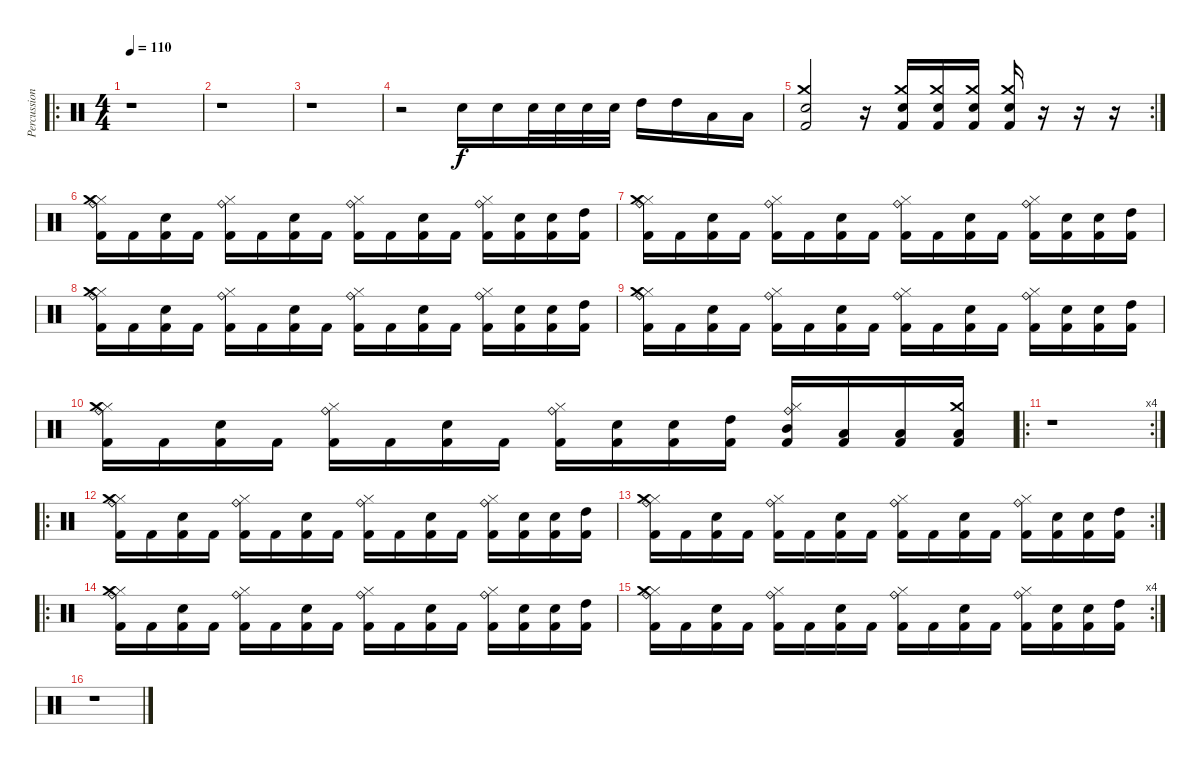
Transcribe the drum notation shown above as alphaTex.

\track ("Percussion" "Percussion") {instrument percussion}
\staff {score}
\articulation defaults
\ro
\ts (4 4)
\tempo 110
\clef neutral
\ks c
r.1{dy f} |
r.1 |
r.1 |
r.2 "Electric Snare (hit)".16 "Electric Snare (hit)".16 "Snare (hit) 2".32 "Snare (hit) 2".32 "Snare (hit) 2".32 "Snare (hit) 2".32 "High Tom (hit)".16 "High Tom (hit)".16 "Low Tom (hit)".16 "Low Floor Tom (hit)".16 |
\rc 2
("Crash medium (hit)" "Electric Snare (hit)" "Kick (hit) 2").2 r.16 ("Crash medium (hit)" "Electric Snare (hit)" "Kick (hit) 2").16 ("Crash medium (hit)" "Electric Snare (hit)" "Kick (hit) 2").16 ("Crash medium (hit)" "Electric Snare (hit)" "Kick (hit) 2").16 ("Crash medium (hit)" "Electric Snare (hit)" "Kick (hit) 2").16 r.16 r.16 r.16 |
("Ride (bell)" "Hi-Hat (closed)" "Crash medium (hit)" "Kick (hit) 2").16 "Kick (hit) 2".16 ("Electric Snare (hit)" "Kick (hit) 2").16 "Kick (hit) 2".16 ("Ride (bell)" "Hi-Hat (closed)" "Kick (hit) 2").16 "Kick (hit) 2".16 ("Electric Snare (hit)" "Kick (hit) 2").16 "Kick (hit) 2".16 ("Ride (bell)" "Hi-Hat (closed)" "Kick (hit) 2").16 "Kick (hit) 2".16 ("Electric Snare (hit)" "Kick (hit) 2").16 "Kick (hit) 2".16 ("Ride (bell)" "Hi-Hat (closed)" "Kick (hit) 2").16 ("Snare (hit) 2" "Kick (hit) 2").16 ("Snare (hit) 2" "Kick (hit) 2").16 ("High Tom (hit)" "Kick (hit) 2").16 |
("Ride (bell)" "Hi-Hat (closed)" "Crash medium (hit)" "Kick (hit) 2").16 "Kick (hit) 2".16 ("Electric Snare (hit)" "Kick (hit) 2").16 "Kick (hit) 2".16 ("Ride (bell)" "Hi-Hat (closed)" "Kick (hit) 2").16 "Kick (hit) 2".16 ("Electric Snare (hit)" "Kick (hit) 2").16 "Kick (hit) 2".16 ("Ride (bell)" "Hi-Hat (closed)" "Kick (hit) 2").16 "Kick (hit) 2".16 ("Electric Snare (hit)" "Kick (hit) 2").16 "Kick (hit) 2".16 ("Ride (bell)" "Hi-Hat (closed)" "Kick (hit) 2").16 ("Snare (hit) 2" "Kick (hit) 2").16 ("Snare (hit) 2" "Kick (hit) 2").16 ("High Tom (hit)" "Kick (hit) 2").16 |
("Ride (bell)" "Hi-Hat (closed)" "Crash medium (hit)" "Kick (hit) 2").16 "Kick (hit) 2".16 ("Electric Snare (hit)" "Kick (hit) 2").16 "Kick (hit) 2".16 ("Ride (bell)" "Hi-Hat (closed)" "Kick (hit) 2").16 "Kick (hit) 2".16 ("Electric Snare (hit)" "Kick (hit) 2").16 "Kick (hit) 2".16 ("Ride (bell)" "Hi-Hat (closed)" "Kick (hit) 2").16 "Kick (hit) 2".16 ("Electric Snare (hit)" "Kick (hit) 2").16 "Kick (hit) 2".16 ("Ride (bell)" "Hi-Hat (closed)" "Kick (hit) 2").16 ("Snare (hit) 2" "Kick (hit) 2").16 ("Snare (hit) 2" "Kick (hit) 2").16 ("High Tom (hit)" "Kick (hit) 2").16 |
("Ride (bell)" "Hi-Hat (closed)" "Crash medium (hit)" "Kick (hit) 2").16 "Kick (hit) 2".16 ("Electric Snare (hit)" "Kick (hit) 2").16 "Kick (hit) 2".16 ("Ride (bell)" "Hi-Hat (closed)" "Kick (hit) 2").16 "Kick (hit) 2".16 ("Electric Snare (hit)" "Kick (hit) 2").16 "Kick (hit) 2".16 ("Ride (bell)" "Hi-Hat (closed)" "Kick (hit) 2").16 "Kick (hit) 2".16 ("Electric Snare (hit)" "Kick (hit) 2").16 "Kick (hit) 2".16 ("Ride (bell)" "Hi-Hat (closed)" "Kick (hit) 2").16 ("Snare (hit) 2" "Kick (hit) 2").16 ("Snare (hit) 2" "Kick (hit) 2").16 ("High Tom (hit)" "Kick (hit) 2").16 |
("Ride (bell)" "Hi-Hat (closed)" "Crash medium (hit)" "Kick (hit) 2").16 "Kick (hit) 2".16 ("Electric Snare (hit)" "Kick (hit) 2").16 "Kick (hit) 2".16 ("Ride (bell)" "Hi-Hat (closed)" "Kick (hit) 2").16 "Kick (hit) 2".16 ("Electric Snare (hit)" "Kick (hit) 2").16 "Kick (hit) 2".16 ("Ride (bell)" "Hi-Hat (closed)" "Kick (hit) 2").16 ("Snare (hit) 2" "Kick (hit) 2").16 ("Snare (hit) 2" "Kick (hit) 2").16 ("High Tom (hit)" "Kick (hit) 2").16 ("Ride (bell)" "Hi-Hat (closed)" "Mid Tom (hit)" "Kick (hit) 2").16 ("Low Tom (hit)" "Kick (hit) 2").16 ("Low Tom (hit)" "Kick (hit) 2").16 ("Crash medium (hit)" "Low Floor Tom (hit)" "Kick (hit) 2").16 |
\ro
\rc 4
r.1 |
\ro
("Ride (bell)" "Hi-Hat (closed)" "Crash medium (hit)" "Kick (hit) 2").16 "Kick (hit) 2".16 ("Electric Snare (hit)" "Kick (hit) 2").16 "Kick (hit) 2".16 ("Ride (bell)" "Hi-Hat (closed)" "Kick (hit) 2").16 "Kick (hit) 2".16 ("Electric Snare (hit)" "Kick (hit) 2").16 "Kick (hit) 2".16 ("Ride (bell)" "Hi-Hat (closed)" "Kick (hit) 2").16 "Kick (hit) 2".16 ("Electric Snare (hit)" "Kick (hit) 2").16 "Kick (hit) 2".16 ("Ride (bell)" "Hi-Hat (closed)" "Kick (hit) 2").16 ("Snare (hit) 2" "Kick (hit) 2").16 ("Snare (hit) 2" "Kick (hit) 2").16 ("High Tom (hit)" "Kick (hit) 2").16 |
\rc 2
("Ride (bell)" "Hi-Hat (closed)" "Crash medium (hit)" "Kick (hit) 2").16 "Kick (hit) 2".16 ("Electric Snare (hit)" "Kick (hit) 2").16 "Kick (hit) 2".16 ("Ride (bell)" "Hi-Hat (closed)" "Kick (hit) 2").16 "Kick (hit) 2".16 ("Electric Snare (hit)" "Kick (hit) 2").16 "Kick (hit) 2".16 ("Ride (bell)" "Hi-Hat (closed)" "Kick (hit) 2").16 "Kick (hit) 2".16 ("Electric Snare (hit)" "Kick (hit) 2").16 "Kick (hit) 2".16 ("Ride (bell)" "Hi-Hat (closed)" "Kick (hit) 2").16 ("Snare (hit) 2" "Kick (hit) 2").16 ("Snare (hit) 2" "Kick (hit) 2").16 ("High Tom (hit)" "Kick (hit) 2").16 |
\ro
("Ride (bell)" "Hi-Hat (closed)" "Crash medium (hit)" "Kick (hit) 2").16 "Kick (hit) 2".16 ("Electric Snare (hit)" "Kick (hit) 2").16 "Kick (hit) 2".16 ("Ride (bell)" "Hi-Hat (closed)" "Kick (hit) 2").16 "Kick (hit) 2".16 ("Electric Snare (hit)" "Kick (hit) 2").16 "Kick (hit) 2".16 ("Ride (bell)" "Hi-Hat (closed)" "Kick (hit) 2").16 "Kick (hit) 2".16 ("Electric Snare (hit)" "Kick (hit) 2").16 "Kick (hit) 2".16 ("Ride (bell)" "Hi-Hat (closed)" "Kick (hit) 2").16 ("Snare (hit) 2" "Kick (hit) 2").16 ("Snare (hit) 2" "Kick (hit) 2").16 ("High Tom (hit)" "Kick (hit) 2").16 |
\rc 4
("Ride (bell)" "Hi-Hat (closed)" "Crash medium (hit)" "Kick (hit) 2").16 "Kick (hit) 2".16 ("Electric Snare (hit)" "Kick (hit) 2").16 "Kick (hit) 2".16 ("Ride (bell)" "Hi-Hat (closed)" "Kick (hit) 2").16 "Kick (hit) 2".16 ("Electric Snare (hit)" "Kick (hit) 2").16 "Kick (hit) 2".16 ("Ride (bell)" "Hi-Hat (closed)" "Kick (hit) 2").16 "Kick (hit) 2".16 ("Electric Snare (hit)" "Kick (hit) 2").16 "Kick (hit) 2".16 ("Ride (bell)" "Hi-Hat (closed)" "Kick (hit) 2").16 ("Snare (hit) 2" "Kick (hit) 2").16 ("Snare (hit) 2" "Kick (hit) 2").16 ("High Tom (hit)" "Kick (hit) 2").16 |
r.1
